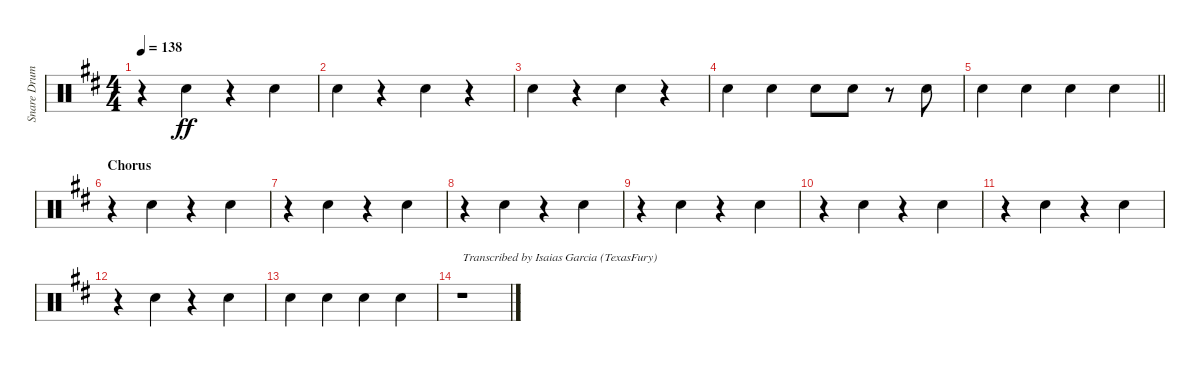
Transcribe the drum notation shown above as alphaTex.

\track ("Snare Drum" "Snare Drum") {instrument percussion}
\staff {score}
\articulation defaults
\ts (4 4)
\tempo 138
\clef neutral
\ks d
r.4{dy ff} "Electric Snare (hit)".4 r.4 "Electric Snare (hit)".4 |
"Electric Snare (hit)".4 r.4 "Electric Snare (hit)".4 r.4 |
"Electric Snare (hit)".4 r.4 "Electric Snare (hit)".4 r.4 |
"Electric Snare (hit)".4 "Electric Snare (hit)".4 "Electric Snare (hit)".8 "Electric Snare (hit)".8 r.8 "Electric Snare (hit)".8 |
\barLineRight lightlight "Electric Snare (hit)".4 "Electric Snare (hit)".4 "Electric Snare (hit)".4 "Electric Snare (hit)".4
|
\section ("" "Chorus")
r.4 "Electric Snare (hit)".4 r.4 "Electric Snare (hit)".4 |
r.4 "Electric Snare (hit)".4 r.4 "Electric Snare (hit)".4 |
r.4 "Electric Snare (hit)".4 r.4 "Electric Snare (hit)".4 |
r.4 "Electric Snare (hit)".4 r.4 "Electric Snare (hit)".4 |
r.4 "Electric Snare (hit)".4 r.4 "Electric Snare (hit)".4 |
r.4 "Electric Snare (hit)".4 r.4 "Electric Snare (hit)".4 |
r.4 "Electric Snare (hit)".4 r.4 "Electric Snare (hit)".4 |
"Electric Snare (hit)".4 "Electric Snare (hit)".4 "Electric Snare (hit)".4 "Electric Snare (hit)".4 |
r.1{txt "Transcribed by Isaias Garcia (TexasFury)"}
